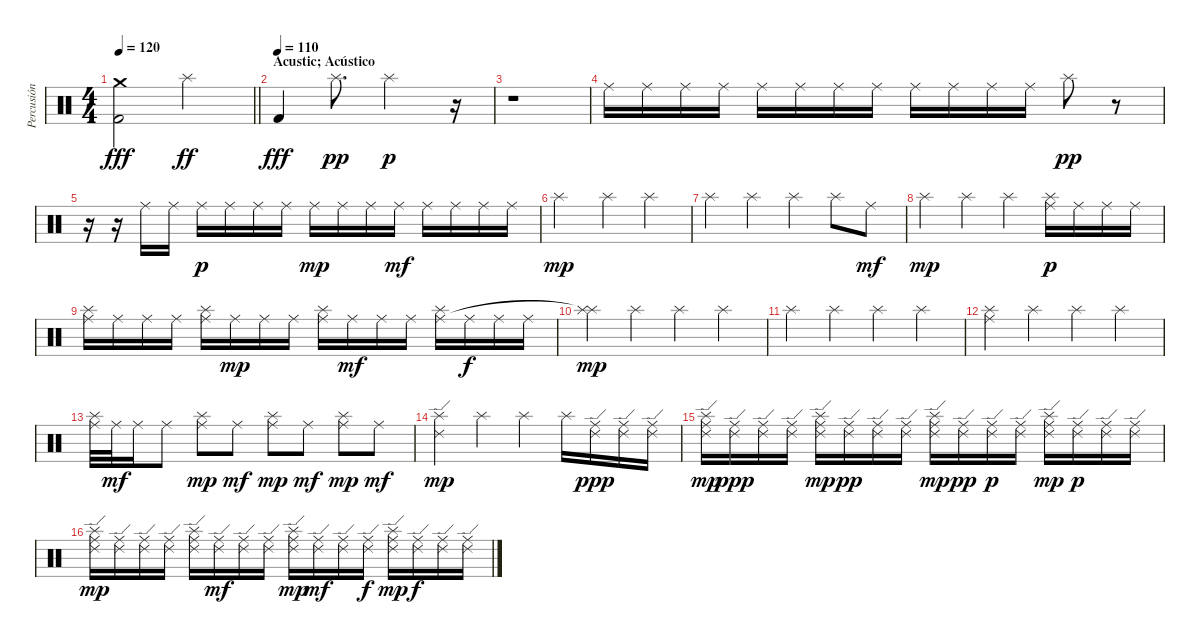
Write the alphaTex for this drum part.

\track ("Percusión" "Percusión") {instrument percussion}
\staff {score}
\articulation defaults
\ts (4 4)
\tempo 120
\clef neutral
\barLineRight lightlight
\ks c
("Crash medium (hit)" "Kick (hit) 2").2{dy fff} "Splash (hit)".2{dy ff} |
\section ("" "Acustic; Acústico")
\tempo (110)
"Kick (hit) 2".4{dy fff} "Splash (hit)".8{d dy pp} "Splash (hit)".2{dy p} r.16 |
r.1 |
"Ride (middle)".16 "Ride (middle)".16 "Ride (middle)".16 "Ride (middle)".16 "Ride (middle)".16 "Ride (middle)".16 "Ride (middle)".16 "Ride (middle)".16 "Ride (middle)".16 "Ride (middle)".16 "Ride (middle)".16 "Ride (middle)".16 "Splash (hit)".8{dy pp} r.8 |
r.16 r.16 "Ride (middle)".16 "Ride (middle)".16 "Ride (middle)".16{dy p} "Ride (middle)".16 "Ride (middle)".16 "Ride (middle)".16 "Ride (middle)".16{dy mp} "Ride (middle)".16 "Ride (middle)".16 "Ride (middle)".16{dy mf} "Ride (middle)".16 "Ride (middle)".16 "Ride (middle)".16 "Ride (middle)".16 |
"Splash (hit)".2{dy mp} "Splash (hit)".4 "Splash (hit)".4 |
"Splash (hit)".4 "Splash (hit)".4 "Splash (hit)".4 "Splash (hit)".8 "Ride (middle)".8{dy mf} |
"Splash (hit)".4{dy mp} "Splash (hit)".4 "Splash (hit)".4 ("Splash (hit)" "Ride (middle)").16{dy p} "Ride (middle)".16 "Ride (middle)".16 "Ride (middle)".16 |
("Splash (hit)" "Ride (middle)").16 "Ride (middle)".16 "Ride (middle)".16 "Ride (middle)".16 ("Splash (hit)" "Ride (middle)").16 "Ride (middle)".16{dy mp} "Ride (middle)".16 "Ride (middle)".16 ("Splash (hit)" "Ride (middle)").16 "Ride (middle)".16{dy mf} "Ride (middle)".16 "Ride (middle)".16 ("Splash (hit)" "Ride (middle)").16 "Ride (middle)".16{dy f} "Ride (middle)".16 "Ride (middle)".16 |
("Splash (hit)" "Splash (hit)"{t}).4{dy mp} "Splash (hit)".4 "Splash (hit)".4 "Splash (hit)".4 |
"Splash (hit)".4 "Splash (hit)".4 "Splash (hit)".4 "Splash (hit)".4 |
("Ride (middle)" "Splash (hit)").4 "Splash (hit)".4 "Splash (hit)".4 "Splash (hit)".4 |
("Ride (middle)" "Splash (hit)").32 "Ride (middle)".32{dy mf} "Ride (middle)".16 "Ride (middle)".8 ("Ride (middle)" "Splash (hit)").8{dy mp} "Ride (middle)".8{dy mf} ("Ride (middle)" "Splash (hit)").8{dy mp} "Ride (middle)".8{dy mf} ("Ride (middle)" "Splash (hit)").8{dy mp} "Ride (middle)".8{dy mf} |
("Ride (edge) 2" "Splash (hit)").4{dy mp} "Splash (hit)".4 "Splash (hit)".4 "Splash (hit)".16 ("Ride (middle)" "Ride (edge) 2").16{dy ppp} ("Ride (middle)" "Ride (edge) 2").16 ("Ride (middle)" "Ride (edge) 2").16 |
("Ride (middle)" "Ride (edge) 2" "Splash (hit)").16{dy mp} ("Ride (middle)" "Ride (edge) 2").16{dy ppp} ("Ride (middle)" "Ride (edge) 2").16 ("Ride (middle)" "Ride (edge) 2").16 ("Ride (middle)" "Ride (edge) 2" "Splash (hit)").16{dy mp} ("Ride (middle)" "Ride (edge) 2").16{dy pp} ("Ride (middle)" "Ride (edge) 2").16 ("Ride (middle)" "Ride (edge) 2").16 ("Ride (middle)" "Ride (edge) 2" "Splash (hit)").16{dy mp} ("Ride (middle)" "Ride (edge) 2").16{dy pp} ("Ride (middle)" "Ride (edge) 2").16{dy p} ("Ride (middle)" "Ride (edge) 2").16 ("Ride (middle)" "Ride (edge) 2" "Splash (hit)").16{dy mp} ("Ride (middle)" "Ride (edge) 2").16{dy p} ("Ride (middle)" "Ride (edge) 2").16 ("Ride (middle)" "Ride (edge) 2").16 |
("Ride (middle)" "Ride (edge) 2" "Splash (hit)").16{dy mp} ("Ride (middle)" "Ride (edge) 2").16 ("Ride (middle)" "Ride (edge) 2").16 ("Ride (middle)" "Ride (edge) 2").16 ("Ride (middle)" "Ride (edge) 2" "Splash (hit)").16 ("Ride (middle)" "Ride (edge) 2").16{dy mf} ("Ride (middle)" "Ride (edge) 2").16 ("Ride (middle)" "Ride (edge) 2").16 ("Ride (middle)" "Ride (edge) 2" "Splash (hit)").16{dy mp} ("Ride (middle)" "Ride (edge) 2").16{dy mf} ("Ride (middle)" "Ride (edge) 2").16 ("Ride (middle)" "Ride (edge) 2").16{dy f} ("Ride (middle)" "Ride (edge) 2" "Splash (hit)").16{dy mp} ("Ride (middle)" "Ride (edge) 2").16{dy f} ("Ride (middle)" "Ride (edge) 2").16 ("Ride (middle)" "Ride (edge) 2").16
